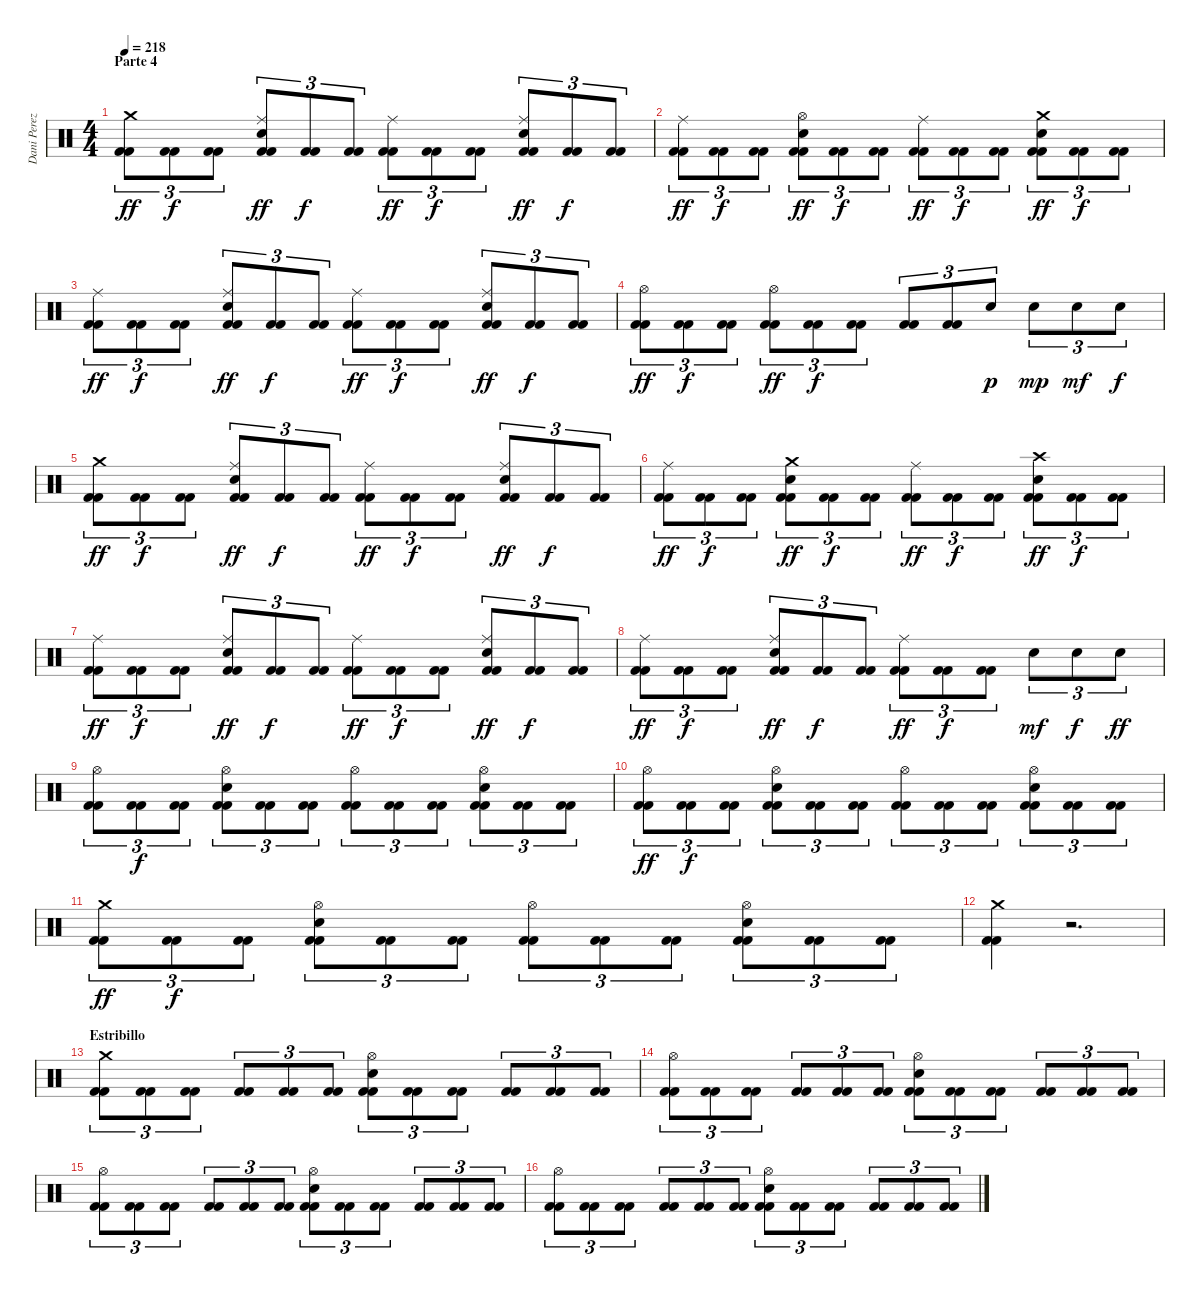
\track ("Dani Perez" "Dani Perez") {instrument percussion}
\staff {score}
\articulation defaults
\ts (4 4)
\section ("" "Parte 4")
\tempo 218
\clef neutral
\ks c
("Crash medium (hit)" "Kick (hit) 2" "Kick (hit) 2").8{tu (3 2) dy ff} ("Kick (hit) 2" "Kick (hit) 2").8{tu (3 2) dy f} ("Kick (hit) 2" "Kick (hit) 2").8{tu (3 2)} ("Ride (middle)" "Snare (hit) 2" "Kick (hit) 2" "Kick (hit) 2").8{tu (3 2) dy ff} ("Kick (hit) 2" "Kick (hit) 2").8{tu (3 2) dy f} ("Kick (hit) 2" "Kick (hit) 2").8{tu (3 2)} ("Ride (middle)" "Kick (hit) 2" "Kick (hit) 2").8{tu (3 2) dy ff} ("Kick (hit) 2" "Kick (hit) 2").8{tu (3 2) dy f} ("Kick (hit) 2" "Kick (hit) 2").8{tu (3 2)} ("Ride (middle)" "Snare (hit) 2" "Kick (hit) 2" "Kick (hit) 2").8{tu (3 2) dy ff} ("Kick (hit) 2" "Kick (hit) 2").8{tu (3 2) dy f} ("Kick (hit) 2" "Kick (hit) 2").8{tu (3 2)} |
("Ride (middle)" "Kick (hit) 2" "Kick (hit) 2").8{tu (3 2) dy ff} ("Kick (hit) 2" "Kick (hit) 2").8{tu (3 2) dy f} ("Kick (hit) 2" "Kick (hit) 2").8{tu (3 2)} ("Hi-Hat (open)" "Snare (hit) 2" "Kick (hit) 2" "Kick (hit) 2").8{tu (3 2) dy ff} ("Kick (hit) 2" "Kick (hit) 2").8{tu (3 2) dy f} ("Kick (hit) 2" "Kick (hit) 2").8{tu (3 2)} ("Ride (middle)" "Kick (hit) 2" "Kick (hit) 2").8{tu (3 2) dy ff} ("Kick (hit) 2" "Kick (hit) 2").8{tu (3 2) dy f} ("Kick (hit) 2" "Kick (hit) 2").8{tu (3 2)} ("Crash medium (hit)" "Snare (hit) 2" "Kick (hit) 2" "Kick (hit) 2").8{tu (3 2) dy ff} ("Kick (hit) 2" "Kick (hit) 2").8{tu (3 2) dy f} ("Kick (hit) 2" "Kick (hit) 2").8{tu (3 2)} |
("Ride (middle)" "Kick (hit) 2" "Kick (hit) 2").8{tu (3 2) dy ff} ("Kick (hit) 2" "Kick (hit) 2").8{tu (3 2) dy f} ("Kick (hit) 2" "Kick (hit) 2").8{tu (3 2)} ("Ride (middle)" "Snare (hit) 2" "Kick (hit) 2" "Kick (hit) 2").8{tu (3 2) dy ff} ("Kick (hit) 2" "Kick (hit) 2").8{tu (3 2) dy f} ("Kick (hit) 2" "Kick (hit) 2").8{tu (3 2)} ("Ride (middle)" "Kick (hit) 2" "Kick (hit) 2").8{tu (3 2) dy ff} ("Kick (hit) 2" "Kick (hit) 2").8{tu (3 2) dy f} ("Kick (hit) 2" "Kick (hit) 2").8{tu (3 2)} ("Ride (middle)" "Snare (hit) 2" "Kick (hit) 2" "Kick (hit) 2").8{tu (3 2) dy ff} ("Kick (hit) 2" "Kick (hit) 2").8{tu (3 2) dy f} ("Kick (hit) 2" "Kick (hit) 2").8{tu (3 2)} |
("Hi-Hat (open)" "Kick (hit) 2" "Kick (hit) 2").8{tu (3 2) dy ff} ("Kick (hit) 2" "Kick (hit) 2").8{tu (3 2) dy f} ("Kick (hit) 2" "Kick (hit) 2").8{tu (3 2)} ("Hi-Hat (open)" "Kick (hit) 2" "Kick (hit) 2").8{tu (3 2) dy ff} ("Kick (hit) 2" "Kick (hit) 2").8{tu (3 2) dy f} ("Kick (hit) 2" "Kick (hit) 2").8{tu (3 2)} ("Kick (hit) 2" "Kick (hit) 2").8{tu (3 2)} ("Kick (hit) 2" "Kick (hit) 2").8{tu (3 2)} "Snare (hit) 2".8{tu (3 2) dy p} "Snare (hit) 2".8{tu (3 2) dy mp} "Snare (hit) 2".8{tu (3 2) dy mf} "Snare (hit) 2".8{tu (3 2) dy f} |
("Crash medium (hit)" "Kick (hit) 2" "Kick (hit) 2").8{tu (3 2) dy ff} ("Kick (hit) 2" "Kick (hit) 2").8{tu (3 2) dy f} ("Kick (hit) 2" "Kick (hit) 2").8{tu (3 2)} ("Ride (middle)" "Snare (hit) 2" "Kick (hit) 2" "Kick (hit) 2").8{tu (3 2) dy ff} ("Kick (hit) 2" "Kick (hit) 2").8{tu (3 2) dy f} ("Kick (hit) 2" "Kick (hit) 2").8{tu (3 2)} ("Ride (middle)" "Kick (hit) 2" "Kick (hit) 2").8{tu (3 2) dy ff} ("Kick (hit) 2" "Kick (hit) 2").8{tu (3 2) dy f} ("Kick (hit) 2" "Kick (hit) 2").8{tu (3 2)} ("Ride (middle)" "Snare (hit) 2" "Kick (hit) 2" "Kick (hit) 2").8{tu (3 2) dy ff} ("Kick (hit) 2" "Kick (hit) 2").8{tu (3 2) dy f} ("Kick (hit) 2" "Kick (hit) 2").8{tu (3 2)} |
("Ride (middle)" "Kick (hit) 2" "Kick (hit) 2").8{tu (3 2) dy ff} ("Kick (hit) 2" "Kick (hit) 2").8{tu (3 2) dy f} ("Kick (hit) 2" "Kick (hit) 2").8{tu (3 2)} ("Crash medium (hit)" "Snare (hit) 2" "Kick (hit) 2" "Kick (hit) 2").8{tu (3 2) dy ff} ("Kick (hit) 2" "Kick (hit) 2").8{tu (3 2) dy f} ("Kick (hit) 2" "Kick (hit) 2").8{tu (3 2)} ("Ride (middle)" "Kick (hit) 2" "Kick (hit) 2").8{tu (3 2) dy ff} ("Kick (hit) 2" "Kick (hit) 2").8{tu (3 2) dy f} ("Kick (hit) 2" "Kick (hit) 2").8{tu (3 2)} ("Crash high (hit)" "Snare (hit) 2" "Kick (hit) 2" "Kick (hit) 2").8{tu (3 2) dy ff} ("Kick (hit) 2" "Kick (hit) 2").8{tu (3 2) dy f} ("Kick (hit) 2" "Kick (hit) 2").8{tu (3 2)} |
("Ride (middle)" "Kick (hit) 2" "Kick (hit) 2").8{tu (3 2) dy ff} ("Kick (hit) 2" "Kick (hit) 2").8{tu (3 2) dy f} ("Kick (hit) 2" "Kick (hit) 2").8{tu (3 2)} ("Ride (middle)" "Snare (hit) 2" "Kick (hit) 2" "Kick (hit) 2").8{tu (3 2) dy ff} ("Kick (hit) 2" "Kick (hit) 2").8{tu (3 2) dy f} ("Kick (hit) 2" "Kick (hit) 2").8{tu (3 2)} ("Ride (middle)" "Kick (hit) 2" "Kick (hit) 2").8{tu (3 2) dy ff} ("Kick (hit) 2" "Kick (hit) 2").8{tu (3 2) dy f} ("Kick (hit) 2" "Kick (hit) 2").8{tu (3 2)} ("Ride (middle)" "Snare (hit) 2" "Kick (hit) 2" "Kick (hit) 2").8{tu (3 2) dy ff} ("Kick (hit) 2" "Kick (hit) 2").8{tu (3 2) dy f} ("Kick (hit) 2" "Kick (hit) 2").8{tu (3 2)} |
("Ride (middle)" "Kick (hit) 2" "Kick (hit) 2").8{tu (3 2) dy ff} ("Kick (hit) 2" "Kick (hit) 2").8{tu (3 2) dy f} ("Kick (hit) 2" "Kick (hit) 2").8{tu (3 2)} ("Ride (middle)" "Snare (hit) 2" "Kick (hit) 2" "Kick (hit) 2").8{tu (3 2) dy ff} ("Kick (hit) 2" "Kick (hit) 2").8{tu (3 2) dy f} ("Kick (hit) 2" "Kick (hit) 2").8{tu (3 2)} ("Ride (middle)" "Kick (hit) 2" "Kick (hit) 2").8{tu (3 2) dy ff} ("Kick (hit) 2" "Kick (hit) 2").8{tu (3 2) dy f} ("Kick (hit) 2" "Kick (hit) 2").8{tu (3 2)} "Snare (hit) 2".8{tu (3 2) dy mf} "Snare (hit) 2".8{tu (3 2) dy f} "Snare (hit) 2".8{tu (3 2) dy ff} |
("Hi-Hat (open)" "Kick (hit) 2" "Kick (hit) 2").8{tu (3 2)} ("Kick (hit) 2" "Kick (hit) 2").8{tu (3 2) dy f} ("Kick (hit) 2" "Kick (hit) 2").8{tu (3 2)} ("Hi-Hat (open)" "Snare (hit) 2" "Kick (hit) 2" "Kick (hit) 2").8{tu (3 2)} ("Kick (hit) 2" "Kick (hit) 2").8{tu (3 2)} ("Kick (hit) 2" "Kick (hit) 2").8{tu (3 2)} ("Hi-Hat (open)" "Kick (hit) 2" "Kick (hit) 2").8{tu (3 2)} ("Kick (hit) 2" "Kick (hit) 2").8{tu (3 2)} ("Kick (hit) 2" "Kick (hit) 2").8{tu (3 2)} ("Hi-Hat (open)" "Snare (hit) 2" "Kick (hit) 2" "Kick (hit) 2").8{tu (3 2)} ("Kick (hit) 2" "Kick (hit) 2").8{tu (3 2)} ("Kick (hit) 2" "Kick (hit) 2").8{tu (3 2)} |
("Hi-Hat (open)" "Kick (hit) 2" "Kick (hit) 2").8{tu (3 2) dy ff} ("Kick (hit) 2" "Kick (hit) 2").8{tu (3 2) dy f} ("Kick (hit) 2" "Kick (hit) 2").8{tu (3 2)} ("Hi-Hat (open)" "Snare (hit) 2" "Kick (hit) 2" "Kick (hit) 2").8{tu (3 2)} ("Kick (hit) 2" "Kick (hit) 2").8{tu (3 2)} ("Kick (hit) 2" "Kick (hit) 2").8{tu (3 2)} ("Hi-Hat (open)" "Kick (hit) 2" "Kick (hit) 2").8{tu (3 2)} ("Kick (hit) 2" "Kick (hit) 2").8{tu (3 2)} ("Kick (hit) 2" "Kick (hit) 2").8{tu (3 2)} ("Hi-Hat (open)" "Snare (hit) 2" "Kick (hit) 2" "Kick (hit) 2").8{tu (3 2)} ("Kick (hit) 2" "Kick (hit) 2").8{tu (3 2)} ("Kick (hit) 2" "Kick (hit) 2").8{tu (3 2)} |
("Crash medium (hit)" "Kick (hit) 2" "Kick (hit) 2").8{tu (3 2) dy ff} ("Kick (hit) 2" "Kick (hit) 2").8{tu (3 2) dy f} ("Kick (hit) 2" "Kick (hit) 2").8{tu (3 2)} ("Hi-Hat (open)" "Snare (hit) 2" "Kick (hit) 2" "Kick (hit) 2").8{tu (3 2)} ("Kick (hit) 2" "Kick (hit) 2").8{tu (3 2)} ("Kick (hit) 2" "Kick (hit) 2").8{tu (3 2)} ("Hi-Hat (open)" "Kick (hit) 2" "Kick (hit) 2").8{tu (3 2)} ("Kick (hit) 2" "Kick (hit) 2").8{tu (3 2)} ("Kick (hit) 2" "Kick (hit) 2").8{tu (3 2)} ("Hi-Hat (open)" "Snare (hit) 2" "Kick (hit) 2" "Kick (hit) 2").8{tu (3 2)} ("Kick (hit) 2" "Kick (hit) 2").8{tu (3 2)} ("Kick (hit) 2" "Kick (hit) 2").8{tu (3 2)} |
("Crash medium (hit)" "Kick (hit) 2" "Kick (hit) 2").4 r.2{d} |
\section ("" "Estribillo")
("Crash medium (hit)" "Kick (hit) 2" "Kick (hit) 2").8{tu (3 2)} ("Kick (hit) 2" "Kick (hit) 2").8{tu (3 2)} ("Kick (hit) 2" "Kick (hit) 2").8{tu (3 2)} ("Kick (hit) 2" "Kick (hit) 2").8{tu (3 2)} ("Kick (hit) 2" "Kick (hit) 2").8{tu (3 2)} ("Kick (hit) 2" "Kick (hit) 2").8{tu (3 2)} ("Hi-Hat (open)" "Snare (hit) 2" "Kick (hit) 2" "Kick (hit) 2").8{tu (3 2)} ("Kick (hit) 2" "Kick (hit) 2").8{tu (3 2)} ("Kick (hit) 2" "Kick (hit) 2").8{tu (3 2)} ("Kick (hit) 2" "Kick (hit) 2").8{tu (3 2)} ("Kick (hit) 2" "Kick (hit) 2").8{tu (3 2)} ("Kick (hit) 2" "Kick (hit) 2").8{tu (3 2)} |
("Hi-Hat (open)" "Kick (hit) 2" "Kick (hit) 2").8{tu (3 2)} ("Kick (hit) 2" "Kick (hit) 2").8{tu (3 2)} ("Kick (hit) 2" "Kick (hit) 2").8{tu (3 2)} ("Kick (hit) 2" "Kick (hit) 2").8{tu (3 2)} ("Kick (hit) 2" "Kick (hit) 2").8{tu (3 2)} ("Kick (hit) 2" "Kick (hit) 2").8{tu (3 2)} ("Hi-Hat (open)" "Snare (hit) 2" "Kick (hit) 2" "Kick (hit) 2").8{tu (3 2)} ("Kick (hit) 2" "Kick (hit) 2").8{tu (3 2)} ("Kick (hit) 2" "Kick (hit) 2").8{tu (3 2)} ("Kick (hit) 2" "Kick (hit) 2").8{tu (3 2)} ("Kick (hit) 2" "Kick (hit) 2").8{tu (3 2)} ("Kick (hit) 2" "Kick (hit) 2").8{tu (3 2)} |
("Hi-Hat (open)" "Kick (hit) 2" "Kick (hit) 2").8{tu (3 2)} ("Kick (hit) 2" "Kick (hit) 2").8{tu (3 2)} ("Kick (hit) 2" "Kick (hit) 2").8{tu (3 2)} ("Kick (hit) 2" "Kick (hit) 2").8{tu (3 2)} ("Kick (hit) 2" "Kick (hit) 2").8{tu (3 2)} ("Kick (hit) 2" "Kick (hit) 2").8{tu (3 2)} ("Hi-Hat (open)" "Snare (hit) 2" "Kick (hit) 2" "Kick (hit) 2").8{tu (3 2)} ("Kick (hit) 2" "Kick (hit) 2").8{tu (3 2)} ("Kick (hit) 2" "Kick (hit) 2").8{tu (3 2)} ("Kick (hit) 2" "Kick (hit) 2").8{tu (3 2)} ("Kick (hit) 2" "Kick (hit) 2").8{tu (3 2)} ("Kick (hit) 2" "Kick (hit) 2").8{tu (3 2)} |
("Hi-Hat (open)" "Kick (hit) 2" "Kick (hit) 2").8{tu (3 2)} ("Kick (hit) 2" "Kick (hit) 2").8{tu (3 2)} ("Kick (hit) 2" "Kick (hit) 2").8{tu (3 2)} ("Kick (hit) 2" "Kick (hit) 2").8{tu (3 2)} ("Kick (hit) 2" "Kick (hit) 2").8{tu (3 2)} ("Kick (hit) 2" "Kick (hit) 2").8{tu (3 2)} ("Hi-Hat (open)" "Snare (hit) 2" "Kick (hit) 2" "Kick (hit) 2").8{tu (3 2)} ("Kick (hit) 2" "Kick (hit) 2").8{tu (3 2)} ("Kick (hit) 2" "Kick (hit) 2").8{tu (3 2)} ("Kick (hit) 2" "Kick (hit) 2").8{tu (3 2)} ("Kick (hit) 2" "Kick (hit) 2").8{tu (3 2)} ("Kick (hit) 2" "Kick (hit) 2").8{tu (3 2)}
